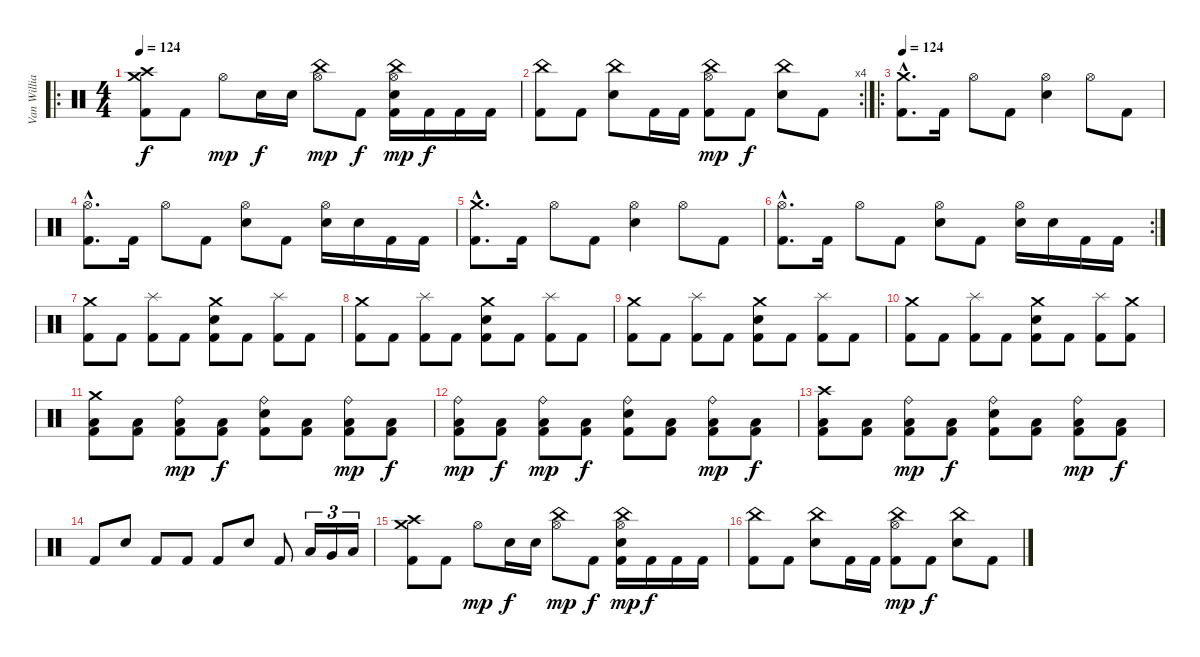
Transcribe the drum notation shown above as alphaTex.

\track ("Van Williams" "Van Willia") {instrument percussion}
\staff {score}
\articulation defaults
\ro
\ts (4 4)
\tempo 124
\tempo 125
\tempo 124
\clef neutral
\ks c
("Crash medium (hit)" "Crash high (hit)" "Kick (hit) 2").8{dy f} "Kick (hit) 2".8 "Hi-Hat (open)".8{dy mp} "Electric Snare (hit)".16{dy f} "Electric Snare (hit)".16 ("China (hit)" "Hi-Hat (open)").8{dy mp} "Kick (hit) 2".8{dy f} ("China (hit)" "Hi-Hat (open)" "Electric Snare (hit)" "Kick (hit) 2").16{dy mp} "Kick (hit) 2".16{dy f} "Kick (hit) 2".16 "Kick (hit) 2".16 |
\rc 4
("China (hit)" "Kick (hit) 2").8 "Kick (hit) 2".8 ("China (hit)" "Electric Snare (hit)").8 "Kick (hit) 2".16 "Kick (hit) 2".16 ("China (hit)" "Hi-Hat (open)" "Kick (hit) 2").8{dy mp} "Kick (hit) 2".8{dy f} ("China (hit)" "Electric Snare (hit)").8 "Kick (hit) 2".8 |
\ro
\tempo 124
("Crash medium (hit)"{hac} "Kick (hit) 2"{hac}).8{d} "Kick (hit) 2".16 "Hi-Hat (open)".8 "Kick (hit) 2".8 ("Hi-Hat (open)" "Electric Snare (hit)").4 "Hi-Hat (open)".8 "Kick (hit) 2".8 |
("Hi-Hat (open)"{hac} "Kick (hit) 2"{hac}).8{d} "Kick (hit) 2".16 "Hi-Hat (open)".8 "Kick (hit) 2".8 ("Hi-Hat (open)" "Electric Snare (hit)").8 "Kick (hit) 2".8 ("Hi-Hat (open)" "Electric Snare (hit)").16 "Electric Snare (hit)".16 "Kick (hit) 2".16 "Kick (hit) 2".16 |
("Crash medium (hit)"{hac} "Kick (hit) 2"{hac}).8{d} "Kick (hit) 2".16 "Hi-Hat (open)".8 "Kick (hit) 2".8 ("Hi-Hat (open)" "Electric Snare (hit)").4 "Hi-Hat (open)".8 "Kick (hit) 2".8 |
\rc 2
("Hi-Hat (open)"{hac} "Kick (hit) 2"{hac}).8{d} "Kick (hit) 2".16 "Hi-Hat (open)".8 "Kick (hit) 2".8 ("Hi-Hat (open)" "Electric Snare (hit)").8 "Kick (hit) 2".8 ("Hi-Hat (open)" "Electric Snare (hit)").16 "Electric Snare (hit)".16 "Kick (hit) 2".16 "Kick (hit) 2".16 |
("Crash medium (hit)" "Kick (hit) 2").8 "Kick (hit) 2".8 ("Splash (hit)" "Kick (hit) 2").8 "Kick (hit) 2".8 ("Crash medium (hit)" "Electric Snare (hit)" "Kick (hit) 2").8 "Kick (hit) 2".8 ("Splash (hit)" "Kick (hit) 2").8 "Kick (hit) 2".8 |
("Crash medium (hit)" "Kick (hit) 2").8 "Kick (hit) 2".8 ("Splash (hit)" "Kick (hit) 2").8 "Kick (hit) 2".8 ("Crash medium (hit)" "Electric Snare (hit)" "Kick (hit) 2").8 "Kick (hit) 2".8 ("Splash (hit)" "Kick (hit) 2").8 "Kick (hit) 2".8 |
("Crash medium (hit)" "Kick (hit) 2").8 "Kick (hit) 2".8 ("Splash (hit)" "Kick (hit) 2").8 "Kick (hit) 2".8 ("Crash medium (hit)" "Electric Snare (hit)" "Kick (hit) 2").8 "Kick (hit) 2".8 ("Splash (hit)" "Kick (hit) 2").8 "Kick (hit) 2".8 |
("Crash medium (hit)" "Kick (hit) 2").8 "Kick (hit) 2".8 ("Splash (hit)" "Kick (hit) 2").8 "Kick (hit) 2".8 ("Crash medium (hit)" "Electric Snare (hit)" "Kick (hit) 2").8 "Kick (hit) 2".8 ("Splash (hit)" "Kick (hit) 2").8 ("Crash medium (hit)" "Kick (hit) 2").8 |
("Crash medium (hit)" "Low Floor Tom (hit)" "Kick (hit) 2").8 ("Low Floor Tom (hit)" "Kick (hit) 2").8 ("Ride (bell)" "Low Floor Tom (hit)" "Kick (hit) 2").8{dy mp} ("Low Floor Tom (hit)" "Kick (hit) 2").8{dy f} ("Ride (bell)" "Electric Snare (hit)" "Kick (hit) 2").8 ("Low Floor Tom (hit)" "Kick (hit) 2").8 ("Ride (bell)" "Low Floor Tom (hit)" "Kick (hit) 2").8{dy mp} ("Low Floor Tom (hit)" "Kick (hit) 2").8{dy f} |
("Ride (bell)" "Low Floor Tom (hit)" "Kick (hit) 2").8{dy mp} ("Low Floor Tom (hit)" "Kick (hit) 2").8{dy f} ("Ride (bell)" "Low Floor Tom (hit)" "Kick (hit) 2").8{dy mp} ("Low Floor Tom (hit)" "Kick (hit) 2").8{dy f} ("Ride (bell)" "Electric Snare (hit)" "Kick (hit) 2").8 ("Low Floor Tom (hit)" "Kick (hit) 2").8 ("Ride (bell)" "Low Floor Tom (hit)" "Kick (hit) 2").8{dy mp} ("Low Floor Tom (hit)" "Kick (hit) 2").8{dy f} |
("Crash high (hit)" "Low Floor Tom (hit)" "Kick (hit) 2").8 ("Low Floor Tom (hit)" "Kick (hit) 2").8 ("Ride (bell)" "Low Floor Tom (hit)" "Kick (hit) 2").8{dy mp} ("Low Floor Tom (hit)" "Kick (hit) 2").8{dy f} ("Ride (bell)" "Electric Snare (hit)" "Kick (hit) 2").8 ("Low Floor Tom (hit)" "Kick (hit) 2").8 ("Ride (bell)" "Low Floor Tom (hit)" "Kick (hit) 2").8{dy mp} ("Low Floor Tom (hit)" "Kick (hit) 2").8{dy f} |
"Kick (hit) 2".8 "Electric Snare (hit)".8 "Kick (hit) 2".8 "Kick (hit) 2".8 "Kick (hit) 2".8 "Electric Snare (hit)".8 "Kick (hit) 2".8 "Low Tom (hit)".16{tu (3 2)} "Very Low Tom (hit)".16{tu (3 2)} "Low Floor Tom (hit)".16{tu (3 2)} |
("Crash medium (hit)" "Crash high (hit)" "Kick (hit) 2").8 "Kick (hit) 2".8 "Hi-Hat (open)".8{dy mp} "Electric Snare (hit)".16{dy f} "Electric Snare (hit)".16 ("China (hit)" "Hi-Hat (open)").8{dy mp} "Kick (hit) 2".8{dy f} ("China (hit)" "Hi-Hat (open)" "Electric Snare (hit)" "Kick (hit) 2").16{dy mp} "Kick (hit) 2".16{dy f} "Kick (hit) 2".16 "Kick (hit) 2".16 |
("China (hit)" "Kick (hit) 2").8 "Kick (hit) 2".8 ("China (hit)" "Electric Snare (hit)").8 "Kick (hit) 2".16 "Kick (hit) 2".16 ("China (hit)" "Hi-Hat (open)" "Kick (hit) 2").8{dy mp} "Kick (hit) 2".8{dy f} ("China (hit)" "Electric Snare (hit)").8 "Kick (hit) 2".8
